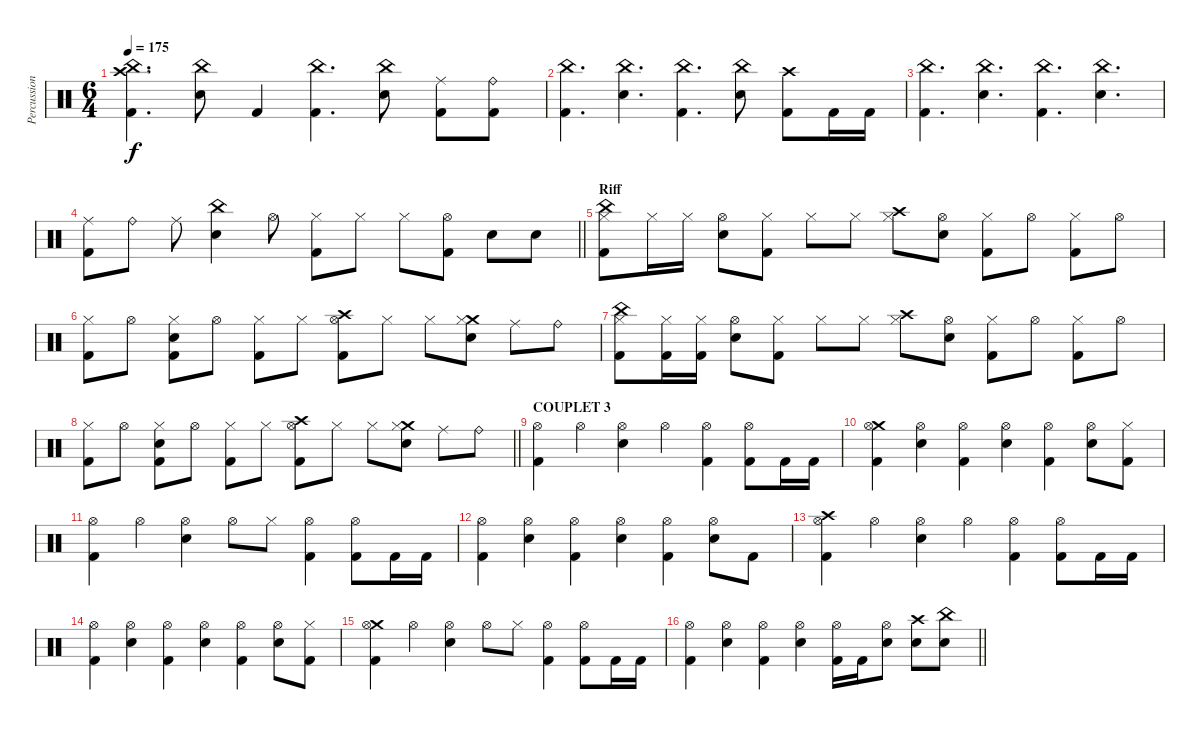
\track ("Percussions" "Percussion") {instrument percussion}
\staff {score}
\articulation defaults
\ts (6 4)
\tempo 175
\clef neutral
\ks c
("China (hit)" "Crash high (hit)" "Kick (hit) 2").4{d dy f} ("China (hit)" "Electric Snare (hit)").8 "Kick (hit) 2".4 ("China (hit)" "Kick (hit) 2").4{d} ("China (hit)" "Electric Snare (hit)").8 ("Ride (middle)" "Kick (hit) 2").8 ("Ride (bell)" "Kick (hit) 2").8 |
("China (hit)" "Kick (hit) 2").4{d} ("China (hit)" "Electric Snare (hit)").4{d} ("China (hit)" "Kick (hit) 2").4{d} ("China (hit)" "Electric Snare (hit)").8 ("Crash high (hit)" "Kick (hit) 2").8 "Kick (hit) 2".16 "Kick (hit) 2".16 |
("China (hit)" "Kick (hit) 2").4{d} ("China (hit)" "Electric Snare (hit)").4{d} ("China (hit)" "Kick (hit) 2").4{d} ("China (hit)" "Electric Snare (hit)").4{d} |
\barLineRight lightlight
("Ride (middle)" "Kick (hit) 2").8 "Ride (bell)".8 "Ride (middle)".8 ("China (hit)" "Electric Snare (hit)").4 "Hi-Hat (open)".8 ("Hi-Hat (closed)" "Kick (hit) 2").8 "Hi-Hat (closed)".8 "Hi-Hat (closed)".8 ("Hi-Hat (open)" "Kick (hit) 2").8 "Electric Snare (hit)".8 "Electric Snare (hit)".8 |
\section ("" "Riff")
("China (hit)" "Hi-Hat (closed)" "Kick (hit) 2").8 "Hi-Hat (closed)".16 "Hi-Hat (closed)".16 ("Hi-Hat (open)" "Electric Snare (hit)").8 ("Hi-Hat (closed)" "Kick (hit) 2").8 "Hi-Hat (closed)".8 "Hi-Hat (closed)".8 ("Crash high (hit)" "Hi-Hat (closed)").8 ("Hi-Hat (open)" "Electric Snare (hit)").8 ("Hi-Hat (closed)" "Kick (hit) 2").8 "Hi-Hat (open)".8 ("Hi-Hat (closed)" "Kick (hit) 2").8 "Hi-Hat (open)".8 |
("Hi-Hat (closed)" "Kick (hit) 2").8 "Hi-Hat (open)".8 ("Hi-Hat (closed)" "Electric Snare (hit)" "Kick (hit) 2").8 "Hi-Hat (open)".8 ("Hi-Hat (closed)" "Kick (hit) 2").8 "Hi-Hat (closed)".8 ("Crash high (hit)" "Hi-Hat (open)" "Kick (hit) 2").8 "Hi-Hat (closed)".8 "Hi-Hat (closed)".8 ("Crash medium (hit)" "Hi-Hat (closed)" "Electric Snare (hit)").8 "Ride (middle)".8 "Ride (bell)".8 |
("China (hit)" "Hi-Hat (closed)" "Kick (hit) 2").8 ("Hi-Hat (closed)" "Kick (hit) 2").16 ("Hi-Hat (closed)" "Kick (hit) 2").16 ("Hi-Hat (open)" "Electric Snare (hit)").8 ("Hi-Hat (closed)" "Kick (hit) 2").8 "Hi-Hat (closed)".8 "Hi-Hat (closed)".8 ("Crash high (hit)" "Hi-Hat (closed)").8 ("Hi-Hat (open)" "Electric Snare (hit)").8 ("Hi-Hat (closed)" "Kick (hit) 2").8 "Hi-Hat (open)".8 ("Hi-Hat (closed)" "Kick (hit) 2").8 "Hi-Hat (open)".8 |
\barLineRight lightlight
("Hi-Hat (closed)" "Kick (hit) 2").8 "Hi-Hat (open)".8 ("Hi-Hat (closed)" "Electric Snare (hit)" "Kick (hit) 2").8 "Hi-Hat (open)".8 ("Hi-Hat (closed)" "Kick (hit) 2").8 "Hi-Hat (closed)".8 ("Crash high (hit)" "Hi-Hat (open)" "Kick (hit) 2").8 "Hi-Hat (closed)".8 "Hi-Hat (closed)".8 ("Crash medium (hit)" "Hi-Hat (closed)" "Electric Snare (hit)").8 "Ride (middle)".8 "Ride (bell)".8 |
\section ("" "COUPLET 3")
("Hi-Hat (open)" "Kick (hit) 2").4 "Hi-Hat (open)".4 ("Hi-Hat (open)" "Electric Snare (hit)").4 "Hi-Hat (open)".4 ("Hi-Hat (open)" "Kick (hit) 2").4 ("Hi-Hat (open)" "Kick (hit) 2").8 "Kick (hit) 2".16 "Kick (hit) 2".16 |
("Crash medium (hit)" "Hi-Hat (open)" "Kick (hit) 2").4 ("Hi-Hat (open)" "Electric Snare (hit)").4 ("Hi-Hat (open)" "Kick (hit) 2").4 ("Hi-Hat (open)" "Electric Snare (hit)").4 ("Hi-Hat (open)" "Kick (hit) 2").4 ("Hi-Hat (open)" "Electric Snare (hit)").8 ("Hi-Hat (closed)" "Kick (hit) 2").8 |
("Hi-Hat (open)" "Kick (hit) 2").4 "Hi-Hat (open)".4 ("Hi-Hat (open)" "Electric Snare (hit)").4 "Hi-Hat (open)".8 "Hi-Hat (closed)".8 ("Hi-Hat (open)" "Kick (hit) 2").4 ("Hi-Hat (open)" "Kick (hit) 2").8 "Kick (hit) 2".16 "Kick (hit) 2".16 |
("Hi-Hat (open)" "Kick (hit) 2").4 ("Hi-Hat (open)" "Electric Snare (hit)").4 ("Hi-Hat (open)" "Kick (hit) 2").4 ("Hi-Hat (open)" "Electric Snare (hit)").4 ("Hi-Hat (open)" "Kick (hit) 2").4 ("Hi-Hat (open)" "Electric Snare (hit)").8 "Kick (hit) 2".8 |
("Crash high (hit)" "Hi-Hat (open)" "Kick (hit) 2").4 "Hi-Hat (open)".4 ("Hi-Hat (open)" "Electric Snare (hit)").4 "Hi-Hat (open)".4 ("Hi-Hat (open)" "Kick (hit) 2").4 ("Hi-Hat (open)" "Kick (hit) 2").8 "Kick (hit) 2".16 "Kick (hit) 2".16 |
("Hi-Hat (open)" "Kick (hit) 2").4 ("Hi-Hat (open)" "Electric Snare (hit)").4 ("Hi-Hat (open)" "Kick (hit) 2").4 ("Hi-Hat (open)" "Electric Snare (hit)").4 ("Hi-Hat (open)" "Kick (hit) 2").4 ("Hi-Hat (open)" "Electric Snare (hit)").8 ("Hi-Hat (closed)" "Kick (hit) 2").8 |
("Crash medium (hit)" "Hi-Hat (open)" "Kick (hit) 2").4 "Hi-Hat (open)".4 ("Hi-Hat (open)" "Electric Snare (hit)").4 "Hi-Hat (open)".8 "Hi-Hat (closed)".8 ("Hi-Hat (open)" "Kick (hit) 2").4 ("Hi-Hat (open)" "Kick (hit) 2").8 "Kick (hit) 2".16 "Kick (hit) 2".16 |
\barLineRight lightlight
("Hi-Hat (open)" "Kick (hit) 2").4 ("Hi-Hat (open)" "Electric Snare (hit)").4 ("Hi-Hat (open)" "Kick (hit) 2").4 ("Hi-Hat (open)" "Electric Snare (hit)").4 ("Hi-Hat (open)" "Kick (hit) 2").16 "Kick (hit) 2".16 ("Hi-Hat (open)" "Electric Snare (hit)").8 ("Crash high (hit)" "Electric Snare (hit)").8 ("China (hit)" "Electric Snare (hit)").8
